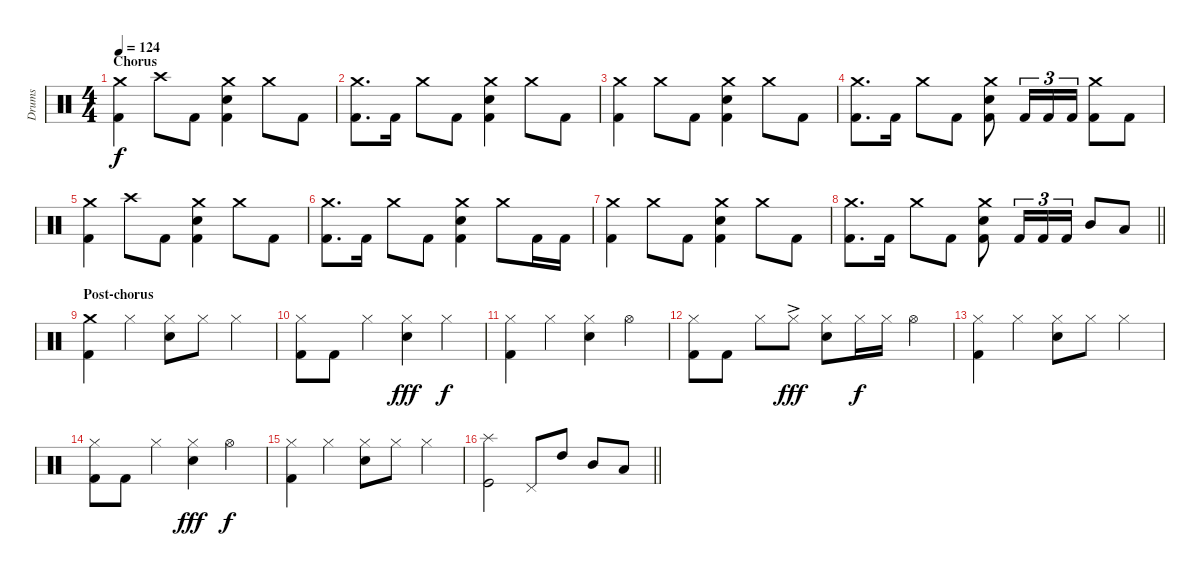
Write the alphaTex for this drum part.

\track ("Drums" "Drums") {instrument percussion}
\staff {score}
\articulation defaults
\ts (4 4)
\section ("" "Chorus")
\tempo 124
\clef neutral
\ks c
("Crash medium (hit)" "Kick (hit) 2").4{dy f} "Crash high (hit)".8 "Kick (hit) 2".8 ("Crash medium (hit)" "Electric Snare (hit)" "Kick (hit) 2").4 "Crash medium (hit)".8 "Kick (hit) 2".8 |
("Crash medium (hit)" "Kick (hit) 2").8{d} "Kick (hit) 2".16 "Crash medium (hit)".8 "Kick (hit) 2".8 ("Crash medium (hit)" "Electric Snare (hit)" "Kick (hit) 2").4 "Crash medium (hit)".8 "Kick (hit) 2".8 |
("Crash medium (hit)" "Kick (hit) 2").4 "Crash medium (hit)".8 "Kick (hit) 2".8 ("Crash medium (hit)" "Electric Snare (hit)" "Kick (hit) 2").4 "Crash medium (hit)".8 "Kick (hit) 2".8 |
("Crash medium (hit)" "Kick (hit) 2").8{d} "Kick (hit) 2".16 "Crash medium (hit)".8 "Kick (hit) 2".8 ("Crash medium (hit)" "Electric Snare (hit)" "Kick (hit) 2").8 "Kick (hit) 2".16{tu (3 2)} "Kick (hit) 2".16{tu (3 2)} "Kick (hit) 2".16{tu (3 2)} ("Crash medium (hit)" "Kick (hit) 2").8 "Kick (hit) 2".8 |
("Crash medium (hit)" "Kick (hit) 2").4 "Crash high (hit)".8 "Kick (hit) 2".8 ("Crash medium (hit)" "Electric Snare (hit)" "Kick (hit) 2").4 "Crash medium (hit)".8 "Kick (hit) 2".8 |
("Crash medium (hit)" "Kick (hit) 2").8{d} "Kick (hit) 2".16 "Crash medium (hit)".8 "Kick (hit) 2".8 ("Crash medium (hit)" "Electric Snare (hit)" "Kick (hit) 2").4 "Crash medium (hit)".8 "Kick (hit) 2".16 "Kick (hit) 2".16 |
("Crash medium (hit)" "Kick (hit) 2").4 "Crash medium (hit)".8 "Kick (hit) 2".8 ("Crash medium (hit)" "Electric Snare (hit)" "Kick (hit) 2").4 "Crash medium (hit)".8 "Kick (hit) 2".8 |
\barLineRight lightlight
("Crash medium (hit)" "Kick (hit) 2").8{d} "Kick (hit) 2".16 "Crash medium (hit)".8 "Kick (hit) 2".8 ("Crash medium (hit)" "Electric Snare (hit)" "Kick (hit) 2").8 "Kick (hit) 2".16{tu (3 2)} "Kick (hit) 2".16{tu (3 2)} "Kick (hit) 2".16{tu (3 2)} "Mid Tom (hit)".8 "Low Tom (hit)".8 |
\section ("" "Post-chorus")
("Crash medium (hit)" "Kick (hit) 2").4 "Hi-Hat (closed)".4 ("Hi-Hat (closed)" "Electric Snare (hit)").8 "Hi-Hat (closed)".8 "Hi-Hat (closed)".4 |
("Hi-Hat (closed)" "Kick (hit) 2").8 "Kick (hit) 2".8 "Hi-Hat (closed)".4 ("Hi-Hat (closed)" "Electric Snare (hit)").4{dy fff} "Hi-Hat (closed)".4{dy f} |
("Hi-Hat (closed)" "Kick (hit) 2").4 "Hi-Hat (closed)".4 ("Hi-Hat (closed)" "Electric Snare (hit)").4 "Hi-Hat (open)".4 |
("Hi-Hat (closed)" "Kick (hit) 2").8 "Kick (hit) 2".8 "Hi-Hat (closed)".8 "Hi-Hat (closed)"{ac}.8{dy fff} ("Hi-Hat (closed)" "Electric Snare (hit)").8 "Hi-Hat (closed)".16{dy f} "Hi-Hat (closed)".16 "Hi-Hat (open)".4 |
("Hi-Hat (closed)" "Kick (hit) 2").4 "Hi-Hat (closed)".4 ("Hi-Hat (closed)" "Electric Snare (hit)").8 "Hi-Hat (closed)".8 "Hi-Hat (closed)".4 |
("Hi-Hat (closed)" "Kick (hit) 2").8 "Kick (hit) 2".8 "Hi-Hat (closed)".4 ("Hi-Hat (closed)" "Electric Snare (hit)").4{dy fff} "Hi-Hat (open)".4{dy f} |
("Hi-Hat (closed)" "Kick (hit) 2").4 "Hi-Hat (closed)".4 ("Hi-Hat (closed)" "Electric Snare (hit)").8 "Hi-Hat (closed)".8 "Hi-Hat (closed)".4 |
\barLineRight lightlight
("Splash (hit)" "Kick (hit)").2 "Pedal Hi-Hat (hit)".8 "High Tom (hit)".8 "Mid Tom (hit)".8 "Low Tom (hit)".8
